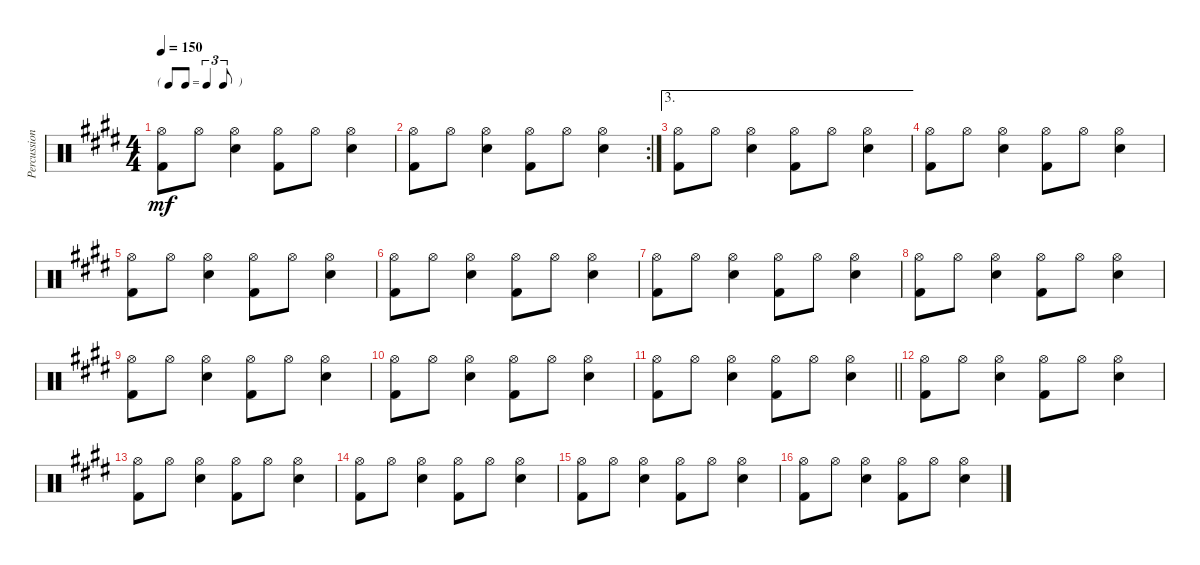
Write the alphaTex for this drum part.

\track ("Percussion" "Percussion") {instrument percussion}
\staff {score}
\articulation defaults
\ts (4 4)
\tf triplet8th
\tempo 150
\clef neutral
\ks e
("Hi-Hat (open)" "Kick (hit) 2").8{dy mf} "Hi-Hat (open)".8 ("Hi-Hat (open)" "Snare (hit) 2").4 ("Hi-Hat (open)" "Kick (hit) 2").8 "Hi-Hat (open)".8 ("Hi-Hat (open)" "Snare (hit) 2").4 |
\rc 2
("Hi-Hat (open)" "Kick (hit) 2").8 "Hi-Hat (open)".8 ("Hi-Hat (open)" "Snare (hit) 2").4 ("Hi-Hat (open)" "Kick (hit) 2").8 "Hi-Hat (open)".8 ("Hi-Hat (open)" "Snare (hit) 2").4 |
\ae 3
("Hi-Hat (open)" "Kick (hit) 2").8 "Hi-Hat (open)".8 ("Hi-Hat (open)" "Snare (hit) 2").4 ("Hi-Hat (open)" "Kick (hit) 2").8 "Hi-Hat (open)".8 ("Hi-Hat (open)" "Snare (hit) 2").4 |
("Hi-Hat (open)" "Kick (hit) 2").8 "Hi-Hat (open)".8 ("Hi-Hat (open)" "Snare (hit) 2").4 ("Hi-Hat (open)" "Kick (hit) 2").8 "Hi-Hat (open)".8 ("Hi-Hat (open)" "Snare (hit) 2").4 |
("Hi-Hat (open)" "Kick (hit) 2").8 "Hi-Hat (open)".8 ("Hi-Hat (open)" "Snare (hit) 2").4 ("Hi-Hat (open)" "Kick (hit) 2").8 "Hi-Hat (open)".8 ("Hi-Hat (open)" "Snare (hit) 2").4 |
("Hi-Hat (open)" "Kick (hit) 2").8 "Hi-Hat (open)".8 ("Hi-Hat (open)" "Snare (hit) 2").4 ("Hi-Hat (open)" "Kick (hit) 2").8 "Hi-Hat (open)".8 ("Hi-Hat (open)" "Snare (hit) 2").4 |
("Hi-Hat (open)" "Kick (hit) 2").8 "Hi-Hat (open)".8 ("Hi-Hat (open)" "Snare (hit) 2").4 ("Hi-Hat (open)" "Kick (hit) 2").8 "Hi-Hat (open)".8 ("Hi-Hat (open)" "Snare (hit) 2").4 |
("Hi-Hat (open)" "Kick (hit) 2").8 "Hi-Hat (open)".8 ("Hi-Hat (open)" "Snare (hit) 2").4 ("Hi-Hat (open)" "Kick (hit) 2").8 "Hi-Hat (open)".8 ("Hi-Hat (open)" "Snare (hit) 2").4 |
("Hi-Hat (open)" "Kick (hit) 2").8 "Hi-Hat (open)".8 ("Hi-Hat (open)" "Snare (hit) 2").4 ("Hi-Hat (open)" "Kick (hit) 2").8 "Hi-Hat (open)".8 ("Hi-Hat (open)" "Snare (hit) 2").4 |
("Hi-Hat (open)" "Kick (hit) 2").8 "Hi-Hat (open)".8 ("Hi-Hat (open)" "Snare (hit) 2").4 ("Hi-Hat (open)" "Kick (hit) 2").8 "Hi-Hat (open)".8 ("Hi-Hat (open)" "Snare (hit) 2").4 |
\barLineRight lightlight
("Hi-Hat (open)" "Kick (hit) 2").8 "Hi-Hat (open)".8 ("Hi-Hat (open)" "Snare (hit) 2").4 ("Hi-Hat (open)" "Kick (hit) 2").8 "Hi-Hat (open)".8 ("Hi-Hat (open)" "Snare (hit) 2").4 |
("Hi-Hat (open)" "Kick (hit) 2").8 "Hi-Hat (open)".8 ("Hi-Hat (open)" "Snare (hit) 2").4 ("Hi-Hat (open)" "Kick (hit) 2").8 "Hi-Hat (open)".8 ("Hi-Hat (open)" "Snare (hit) 2").4 |
("Hi-Hat (open)" "Kick (hit) 2").8 "Hi-Hat (open)".8 ("Hi-Hat (open)" "Snare (hit) 2").4 ("Hi-Hat (open)" "Kick (hit) 2").8 "Hi-Hat (open)".8 ("Hi-Hat (open)" "Snare (hit) 2").4 |
("Hi-Hat (open)" "Kick (hit) 2").8 "Hi-Hat (open)".8 ("Hi-Hat (open)" "Snare (hit) 2").4 ("Hi-Hat (open)" "Kick (hit) 2").8 "Hi-Hat (open)".8 ("Hi-Hat (open)" "Snare (hit) 2").4 |
("Hi-Hat (open)" "Kick (hit) 2").8 "Hi-Hat (open)".8 ("Hi-Hat (open)" "Snare (hit) 2").4 ("Hi-Hat (open)" "Kick (hit) 2").8 "Hi-Hat (open)".8 ("Hi-Hat (open)" "Snare (hit) 2").4 |
("Hi-Hat (open)" "Kick (hit) 2").8 "Hi-Hat (open)".8 ("Hi-Hat (open)" "Snare (hit) 2").4 ("Hi-Hat (open)" "Kick (hit) 2").8 "Hi-Hat (open)".8 ("Hi-Hat (open)" "Snare (hit) 2").4
